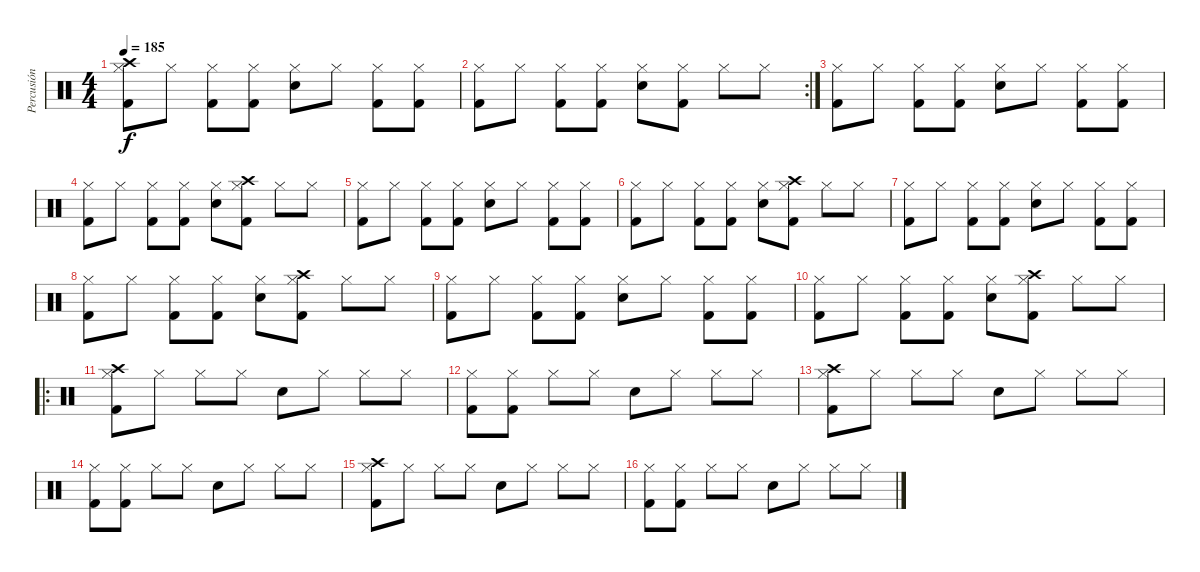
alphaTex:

\track ("Percusión" "Percusión") {instrument percussion}
\staff {score}
\articulation defaults
\ts (4 4)
\tempo 185
\clef neutral
\ks c
("Crash high (hit)" "Hi-Hat (closed)" "Kick (hit) 2").8{dy f} "Hi-Hat (closed)".8 ("Hi-Hat (closed)" "Kick (hit) 2").8 ("Hi-Hat (closed)" "Kick (hit) 2").8 ("Electric Snare (hit)" "Hi-Hat (closed)").8 "Hi-Hat (closed)".8 ("Hi-Hat (closed)" "Kick (hit) 2").8 ("Hi-Hat (closed)" "Kick (hit) 2").8 |
\rc 2
("Hi-Hat (closed)" "Kick (hit) 2").8 "Hi-Hat (closed)".8 ("Hi-Hat (closed)" "Kick (hit) 2").8 ("Hi-Hat (closed)" "Kick (hit) 2").8 ("Electric Snare (hit)" "Hi-Hat (closed)").8 ("Hi-Hat (closed)" "Kick (hit) 2").8 "Hi-Hat (closed)".8 "Hi-Hat (closed)".8 |
("Hi-Hat (closed)" "Kick (hit) 2").8 "Hi-Hat (closed)".8 ("Hi-Hat (closed)" "Kick (hit) 2").8 ("Hi-Hat (closed)" "Kick (hit) 2").8 ("Electric Snare (hit)" "Hi-Hat (closed)").8 "Hi-Hat (closed)".8 ("Hi-Hat (closed)" "Kick (hit) 2").8 ("Hi-Hat (closed)" "Kick (hit) 2").8 |
("Hi-Hat (closed)" "Kick (hit) 2").8 "Hi-Hat (closed)".8 ("Hi-Hat (closed)" "Kick (hit) 2").8 ("Hi-Hat (closed)" "Kick (hit) 2").8 ("Electric Snare (hit)" "Hi-Hat (closed)").8 ("Crash high (hit)" "Hi-Hat (closed)" "Kick (hit) 2").8 "Hi-Hat (closed)".8 "Hi-Hat (closed)".8 |
("Hi-Hat (closed)" "Kick (hit) 2").8 "Hi-Hat (closed)".8 ("Hi-Hat (closed)" "Kick (hit) 2").8 ("Hi-Hat (closed)" "Kick (hit) 2").8 ("Electric Snare (hit)" "Hi-Hat (closed)").8 "Hi-Hat (closed)".8 ("Hi-Hat (closed)" "Kick (hit) 2").8 ("Hi-Hat (closed)" "Kick (hit) 2").8 |
("Hi-Hat (closed)" "Kick (hit) 2").8 "Hi-Hat (closed)".8 ("Hi-Hat (closed)" "Kick (hit) 2").8 ("Hi-Hat (closed)" "Kick (hit) 2").8 ("Electric Snare (hit)" "Hi-Hat (closed)").8 ("Crash high (hit)" "Hi-Hat (closed)" "Kick (hit) 2").8 "Hi-Hat (closed)".8 "Hi-Hat (closed)".8 |
("Hi-Hat (closed)" "Kick (hit) 2").8 "Hi-Hat (closed)".8 ("Hi-Hat (closed)" "Kick (hit) 2").8 ("Hi-Hat (closed)" "Kick (hit) 2").8 ("Electric Snare (hit)" "Hi-Hat (closed)").8 "Hi-Hat (closed)".8 ("Hi-Hat (closed)" "Kick (hit) 2").8 ("Hi-Hat (closed)" "Kick (hit) 2").8 |
("Hi-Hat (closed)" "Kick (hit) 2").8 "Hi-Hat (closed)".8 ("Hi-Hat (closed)" "Kick (hit) 2").8 ("Hi-Hat (closed)" "Kick (hit) 2").8 ("Electric Snare (hit)" "Hi-Hat (closed)").8 ("Crash high (hit)" "Hi-Hat (closed)" "Kick (hit) 2").8 "Hi-Hat (closed)".8 "Hi-Hat (closed)".8 |
("Hi-Hat (closed)" "Kick (hit) 2").8 "Hi-Hat (closed)".8 ("Hi-Hat (closed)" "Kick (hit) 2").8 ("Hi-Hat (closed)" "Kick (hit) 2").8 ("Electric Snare (hit)" "Hi-Hat (closed)").8 "Hi-Hat (closed)".8 ("Hi-Hat (closed)" "Kick (hit) 2").8 ("Hi-Hat (closed)" "Kick (hit) 2").8 |
("Hi-Hat (closed)" "Kick (hit) 2").8 "Hi-Hat (closed)".8 ("Hi-Hat (closed)" "Kick (hit) 2").8 ("Hi-Hat (closed)" "Kick (hit) 2").8 ("Electric Snare (hit)" "Hi-Hat (closed)").8 ("Crash high (hit)" "Hi-Hat (closed)" "Kick (hit) 2").8 "Hi-Hat (closed)".8 "Hi-Hat (closed)".8 |
\ro
("Crash high (hit)" "Hi-Hat (closed)" "Kick (hit) 2").8 "Hi-Hat (closed)".8 "Hi-Hat (closed)".8 "Hi-Hat (closed)".8 "Electric Snare (hit)".8 "Hi-Hat (closed)".8 "Hi-Hat (closed)".8 "Hi-Hat (closed)".8 |
("Hi-Hat (closed)" "Kick (hit) 2").8 ("Hi-Hat (closed)" "Kick (hit) 2").8 "Hi-Hat (closed)".8 "Hi-Hat (closed)".8 "Electric Snare (hit)".8 "Hi-Hat (closed)".8 "Hi-Hat (closed)".8 "Hi-Hat (closed)".8 |
("Crash high (hit)" "Hi-Hat (closed)" "Kick (hit) 2").8 "Hi-Hat (closed)".8 "Hi-Hat (closed)".8 "Hi-Hat (closed)".8 "Electric Snare (hit)".8 "Hi-Hat (closed)".8 "Hi-Hat (closed)".8 "Hi-Hat (closed)".8 |
("Hi-Hat (closed)" "Kick (hit) 2").8 ("Hi-Hat (closed)" "Kick (hit) 2").8 "Hi-Hat (closed)".8 "Hi-Hat (closed)".8 "Electric Snare (hit)".8 "Hi-Hat (closed)".8 "Hi-Hat (closed)".8 "Hi-Hat (closed)".8 |
("Crash high (hit)" "Hi-Hat (closed)" "Kick (hit) 2").8 "Hi-Hat (closed)".8 "Hi-Hat (closed)".8 "Hi-Hat (closed)".8 "Electric Snare (hit)".8 "Hi-Hat (closed)".8 "Hi-Hat (closed)".8 "Hi-Hat (closed)".8 |
("Hi-Hat (closed)" "Kick (hit) 2").8 ("Hi-Hat (closed)" "Kick (hit) 2").8 "Hi-Hat (closed)".8 "Hi-Hat (closed)".8 "Electric Snare (hit)".8 "Hi-Hat (closed)".8 "Hi-Hat (closed)".8 "Hi-Hat (closed)".8
